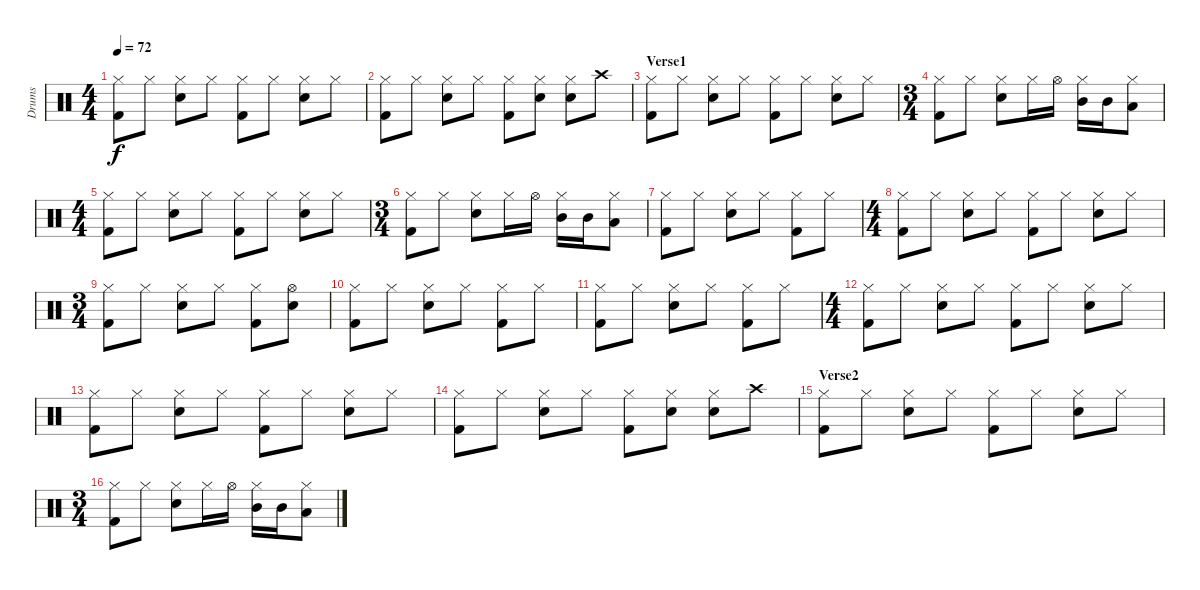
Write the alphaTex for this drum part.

\track ("Drums" "Drums") {instrument percussion}
\staff {score}
\articulation defaults
\ts (4 4)
\tempo 72
\clef neutral
\ks c
("Hi-Hat (closed)" "Kick (hit) 2").8{dy f} "Hi-Hat (closed)".8 ("Hi-Hat (closed)" "Electric Snare (hit)").8 "Hi-Hat (closed)".8 ("Hi-Hat (closed)" "Kick (hit) 2").8 "Hi-Hat (closed)".8 ("Hi-Hat (closed)" "Electric Snare (hit)").8 "Hi-Hat (closed)".8 |
("Hi-Hat (closed)" "Kick (hit) 2").8 "Hi-Hat (closed)".8 ("Hi-Hat (closed)" "Electric Snare (hit)").8 "Hi-Hat (closed)".8 ("Hi-Hat (closed)" "Kick (hit) 2").8 ("Hi-Hat (closed)" "Electric Snare (hit)").8 ("Hi-Hat (closed)" "Electric Snare (hit)").8 "Crash high (hit)".8 |
\section ("" "Verse1")
("Hi-Hat (closed)" "Kick (hit) 2").8 "Hi-Hat (closed)".8 ("Hi-Hat (closed)" "Electric Snare (hit)").8 "Hi-Hat (closed)".8 ("Hi-Hat (closed)" "Kick (hit) 2").8 "Hi-Hat (closed)".8 ("Hi-Hat (closed)" "Electric Snare (hit)").8 "Hi-Hat (closed)".8 |
\ts (3 4)
("Hi-Hat (closed)" "Kick (hit) 2").8 "Hi-Hat (closed)".8 ("Hi-Hat (closed)" "Electric Snare (hit)").8 "Hi-Hat (closed)".16 "Hi-Hat (open)".16 ("Hi-Hat (closed)" "Mid Tom (hit)").16 "Mid Tom (hit)".16 ("Hi-Hat (closed)" "Low Tom (hit)").8 |
\ts (4 4)
("Hi-Hat (closed)" "Kick (hit) 2").8 "Hi-Hat (closed)".8 ("Hi-Hat (closed)" "Electric Snare (hit)").8 "Hi-Hat (closed)".8 ("Hi-Hat (closed)" "Kick (hit) 2").8 "Hi-Hat (closed)".8 ("Hi-Hat (closed)" "Electric Snare (hit)").8 "Hi-Hat (closed)".8 |
\ts (3 4)
("Hi-Hat (closed)" "Kick (hit) 2").8 "Hi-Hat (closed)".8 ("Hi-Hat (closed)" "Electric Snare (hit)").8 "Hi-Hat (closed)".16 "Hi-Hat (open)".16 ("Hi-Hat (closed)" "Mid Tom (hit)").16 "Mid Tom (hit)".16 ("Hi-Hat (closed)" "Low Tom (hit)").8 |
("Hi-Hat (closed)" "Kick (hit) 2").8 "Hi-Hat (closed)".8 ("Hi-Hat (closed)" "Electric Snare (hit)").8 "Hi-Hat (closed)".8 ("Hi-Hat (closed)" "Kick (hit) 2").8 "Hi-Hat (closed)".8 |
\ts (4 4)
("Hi-Hat (closed)" "Kick (hit) 2").8 "Hi-Hat (closed)".8 ("Hi-Hat (closed)" "Electric Snare (hit)").8 "Hi-Hat (closed)".8 ("Hi-Hat (closed)" "Kick (hit) 2").8 "Hi-Hat (closed)".8 ("Hi-Hat (closed)" "Electric Snare (hit)").8 "Hi-Hat (closed)".8 |
\ts (3 4)
("Hi-Hat (closed)" "Kick (hit) 2").8 "Hi-Hat (closed)".8 ("Hi-Hat (closed)" "Electric Snare (hit)").8 "Hi-Hat (closed)".8 ("Hi-Hat (closed)" "Kick (hit) 2").8 ("Hi-Hat (open)" "Electric Snare (hit)").8 |
("Hi-Hat (closed)" "Kick (hit) 2").8 "Hi-Hat (closed)".8 ("Hi-Hat (closed)" "Electric Snare (hit)").8 "Hi-Hat (closed)".8 ("Hi-Hat (closed)" "Kick (hit) 2").8 "Hi-Hat (closed)".8 |
("Hi-Hat (closed)" "Kick (hit) 2").8 "Hi-Hat (closed)".8 ("Hi-Hat (closed)" "Electric Snare (hit)").8 "Hi-Hat (closed)".8 ("Hi-Hat (closed)" "Kick (hit) 2").8 "Hi-Hat (closed)".8 |
\ts (4 4)
("Hi-Hat (closed)" "Kick (hit) 2").8 "Hi-Hat (closed)".8 ("Hi-Hat (closed)" "Electric Snare (hit)").8 "Hi-Hat (closed)".8 ("Hi-Hat (closed)" "Kick (hit) 2").8 "Hi-Hat (closed)".8 ("Hi-Hat (closed)" "Electric Snare (hit)").8 "Hi-Hat (closed)".8 |
("Hi-Hat (closed)" "Kick (hit) 2").8 "Hi-Hat (closed)".8 ("Hi-Hat (closed)" "Electric Snare (hit)").8 "Hi-Hat (closed)".8 ("Hi-Hat (closed)" "Kick (hit) 2").8 "Hi-Hat (closed)".8 ("Hi-Hat (closed)" "Electric Snare (hit)").8 "Hi-Hat (closed)".8 |
("Hi-Hat (closed)" "Kick (hit) 2").8 "Hi-Hat (closed)".8 ("Hi-Hat (closed)" "Electric Snare (hit)").8 "Hi-Hat (closed)".8 ("Hi-Hat (closed)" "Kick (hit) 2").8 ("Hi-Hat (closed)" "Electric Snare (hit)").8 ("Hi-Hat (closed)" "Electric Snare (hit)").8 "Crash high (hit)".8 |
\section ("" "Verse2")
("Hi-Hat (closed)" "Kick (hit) 2").8 "Hi-Hat (closed)".8 ("Hi-Hat (closed)" "Electric Snare (hit)").8 "Hi-Hat (closed)".8 ("Hi-Hat (closed)" "Kick (hit) 2").8 "Hi-Hat (closed)".8 ("Hi-Hat (closed)" "Electric Snare (hit)").8 "Hi-Hat (closed)".8 |
\ts (3 4)
("Hi-Hat (closed)" "Kick (hit) 2").8 "Hi-Hat (closed)".8 ("Hi-Hat (closed)" "Electric Snare (hit)").8 "Hi-Hat (closed)".16 "Hi-Hat (open)".16 ("Hi-Hat (closed)" "Mid Tom (hit)").16 "Mid Tom (hit)".16 ("Hi-Hat (closed)" "Low Tom (hit)").8
